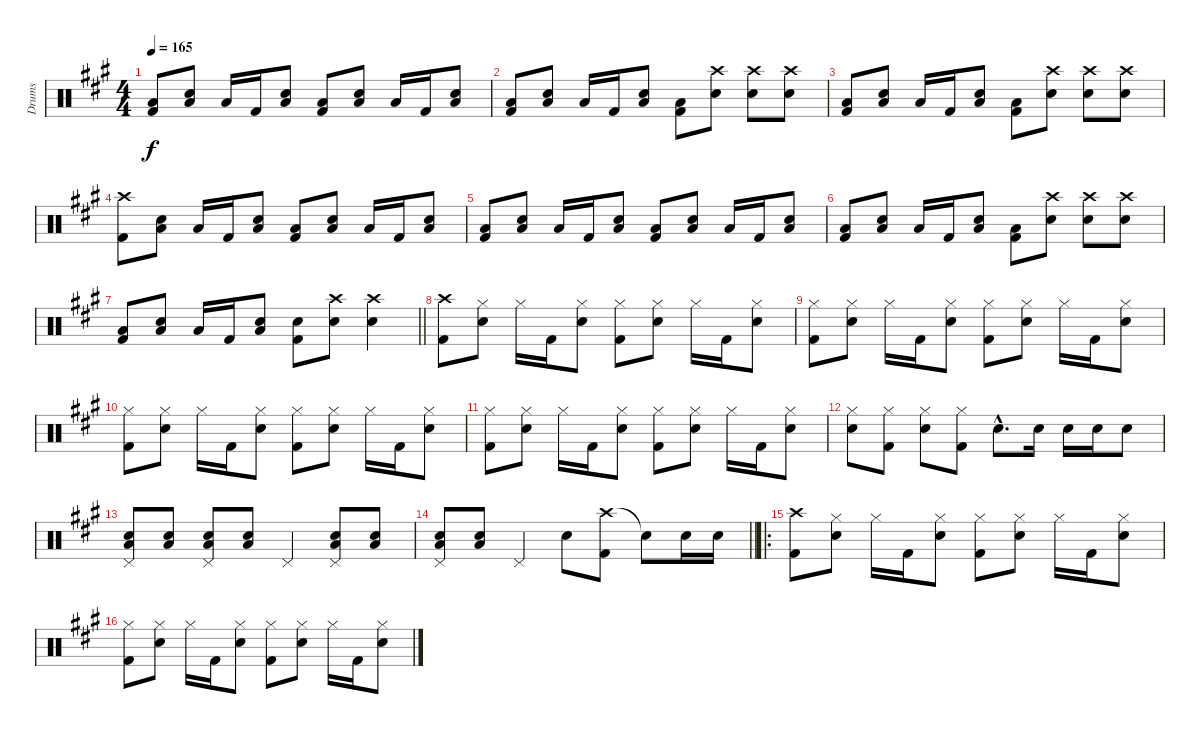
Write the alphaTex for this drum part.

\track ("Drums" "Drums") {instrument percussion}
\staff {score}
\articulation defaults
\ts (4 4)
\tempo 165
\clef neutral
\ks a
("Low Floor Tom (hit)" "Kick (hit) 2").8{dy f} ("Snare (hit) 2" "Low Floor Tom (hit)").8 "Low Floor Tom (hit)".16 "Kick (hit) 2".16 ("Snare (hit) 2" "Low Floor Tom (hit)").8 ("Low Floor Tom (hit)" "Kick (hit) 2").8 ("Snare (hit) 2" "Low Floor Tom (hit)").8 "Low Floor Tom (hit)".16 "Kick (hit) 2".16 ("Snare (hit) 2" "Low Floor Tom (hit)").8 |
("Low Floor Tom (hit)" "Kick (hit) 2").8 ("Snare (hit) 2" "Low Floor Tom (hit)").8 "Low Floor Tom (hit)".16 "Kick (hit) 2".16 ("Snare (hit) 2" "Low Floor Tom (hit)").8 ("Low Floor Tom (hit)" "Kick (hit) 2").8 ("Crash high (hit)" "Snare (hit) 2").8 ("Crash high (hit)" "Snare (hit) 2").8 ("Crash high (hit)" "Snare (hit) 2").8 |
("Low Floor Tom (hit)" "Kick (hit) 2").8 ("Snare (hit) 2" "Low Floor Tom (hit)").8 "Low Floor Tom (hit)".16 "Kick (hit) 2".16 ("Snare (hit) 2" "Low Floor Tom (hit)").8 ("Low Floor Tom (hit)" "Kick (hit) 2").8 ("Crash high (hit)" "Snare (hit) 2").8 ("Crash high (hit)" "Snare (hit) 2").8 ("Crash high (hit)" "Snare (hit) 2").8 |
("Crash high (hit)" "Kick (hit) 2").8 ("Snare (hit) 2" "Low Floor Tom (hit)").8 "Low Floor Tom (hit)".16 "Kick (hit) 2".16 ("Snare (hit) 2" "Low Floor Tom (hit)").8 ("Low Floor Tom (hit)" "Kick (hit) 2").8 ("Snare (hit) 2" "Low Floor Tom (hit)").8 "Low Floor Tom (hit)".16 "Kick (hit) 2".16 ("Snare (hit) 2" "Low Floor Tom (hit)").8 |
("Low Floor Tom (hit)" "Kick (hit) 2").8 ("Snare (hit) 2" "Low Floor Tom (hit)").8 "Low Floor Tom (hit)".16 "Kick (hit) 2".16 ("Snare (hit) 2" "Low Floor Tom (hit)").8 ("Low Floor Tom (hit)" "Kick (hit) 2").8 ("Snare (hit) 2" "Low Floor Tom (hit)").8 "Low Floor Tom (hit)".16 "Kick (hit) 2".16 ("Snare (hit) 2" "Low Floor Tom (hit)").8 |
("Low Floor Tom (hit)" "Kick (hit) 2").8 ("Snare (hit) 2" "Low Floor Tom (hit)").8 "Low Floor Tom (hit)".16 "Kick (hit) 2".16 ("Snare (hit) 2" "Low Floor Tom (hit)").8 ("Low Floor Tom (hit)" "Kick (hit) 2").8 ("Crash high (hit)" "Snare (hit) 2").8 ("Crash high (hit)" "Snare (hit) 2").8 ("Crash high (hit)" "Snare (hit) 2").8 |
\barLineRight lightlight
("Low Floor Tom (hit)" "Kick (hit) 2").8 ("Snare (hit) 2" "Low Floor Tom (hit)").8 "Low Floor Tom (hit)".16 "Kick (hit) 2".16 ("Snare (hit) 2" "Low Floor Tom (hit)").8 ("Snare (hit) 2" "Kick (hit) 2").8 ("Crash high (hit)" "Snare (hit) 2").8 ("Crash high (hit)" "Snare (hit) 2").4 |
("Crash high (hit)" "Kick (hit) 2").8 ("Hi-Hat (closed)" "Snare (hit) 2").8 "Hi-Hat (closed)".16 "Kick (hit) 2".16 ("Hi-Hat (closed)" "Snare (hit) 2").8 ("Hi-Hat (closed)" "Kick (hit) 2").8 ("Hi-Hat (closed)" "Snare (hit) 2").8 "Hi-Hat (closed)".16 "Kick (hit) 2".16 ("Hi-Hat (closed)" "Snare (hit) 2").8 |
("Hi-Hat (closed)" "Kick (hit) 2").8 ("Hi-Hat (closed)" "Snare (hit) 2").8 "Hi-Hat (closed)".16 "Kick (hit) 2".16 ("Hi-Hat (closed)" "Snare (hit) 2").8 ("Hi-Hat (closed)" "Kick (hit) 2").8 ("Hi-Hat (closed)" "Snare (hit) 2").8 "Hi-Hat (closed)".16 "Kick (hit) 2".16 ("Hi-Hat (closed)" "Snare (hit) 2").8 |
("Hi-Hat (closed)" "Kick (hit) 2").8 ("Hi-Hat (closed)" "Snare (hit) 2").8 "Hi-Hat (closed)".16 "Kick (hit) 2".16 ("Hi-Hat (closed)" "Snare (hit) 2").8 ("Hi-Hat (closed)" "Kick (hit) 2").8 ("Hi-Hat (closed)" "Snare (hit) 2").8 "Hi-Hat (closed)".16 "Kick (hit) 2".16 ("Hi-Hat (closed)" "Snare (hit) 2").8 |
("Hi-Hat (closed)" "Kick (hit) 2").8 ("Hi-Hat (closed)" "Snare (hit) 2").8 "Hi-Hat (closed)".16 "Kick (hit) 2".16 ("Hi-Hat (closed)" "Snare (hit) 2").8 ("Hi-Hat (closed)" "Kick (hit) 2").8 ("Hi-Hat (closed)" "Snare (hit) 2").8 "Hi-Hat (closed)".16 "Kick (hit) 2".16 ("Hi-Hat (closed)" "Snare (hit) 2").8 |
("Hi-Hat (closed)" "Snare (hit) 2").8 ("Hi-Hat (closed)" "Kick (hit) 2").8 ("Hi-Hat (closed)" "Snare (hit) 2").8 ("Hi-Hat (closed)" "Kick (hit) 2").8 "Snare (hit) 2"{hac}.8{d} "Snare (hit) 2".16 "Snare (hit) 2".16 "Snare (hit) 2".16 "Snare (hit) 2".8 |
("Pedal Hi-Hat (hit)" "Snare (hit) 2" "Low Floor Tom (hit)").8 ("Snare (hit) 2" "Low Floor Tom (hit)").8 ("Pedal Hi-Hat (hit)" "Snare (hit) 2" "Low Floor Tom (hit)").8 ("Snare (hit) 2" "Low Floor Tom (hit)").8 "Pedal Hi-Hat (hit)".4 ("Pedal Hi-Hat (hit)" "Snare (hit) 2" "Low Floor Tom (hit)").8 ("Snare (hit) 2" "Low Floor Tom (hit)").8 |
\barLineRight lightlight
("Pedal Hi-Hat (hit)" "Snare (hit) 2" "Low Floor Tom (hit)").8 ("Snare (hit) 2" "Low Floor Tom (hit)").8 "Pedal Hi-Hat (hit)".4 "Snare (hit) 2".8 ("Crash high (hit)" "Kick (hit) 2").8 "Snare (hit)"{t}.8 "Snare (hit) 2".16 "Snare (hit) 2".16 |
\ro
("Crash high (hit)" "Kick (hit) 2").8 ("Hi-Hat (closed)" "Snare (hit) 2").8 "Hi-Hat (closed)".16 "Kick (hit) 2".16 ("Hi-Hat (closed)" "Snare (hit) 2").8 ("Hi-Hat (closed)" "Kick (hit) 2").8 ("Hi-Hat (closed)" "Snare (hit) 2").8 "Hi-Hat (closed)".16 "Kick (hit) 2".16 ("Hi-Hat (closed)" "Snare (hit) 2").8 |
("Hi-Hat (closed)" "Kick (hit) 2").8 ("Hi-Hat (closed)" "Snare (hit) 2").8 "Hi-Hat (closed)".16 "Kick (hit) 2".16 ("Hi-Hat (closed)" "Snare (hit) 2").8 ("Hi-Hat (closed)" "Kick (hit) 2").8 ("Hi-Hat (closed)" "Snare (hit) 2").8 "Hi-Hat (closed)".16 "Kick (hit) 2".16 ("Hi-Hat (closed)" "Snare (hit) 2").8
